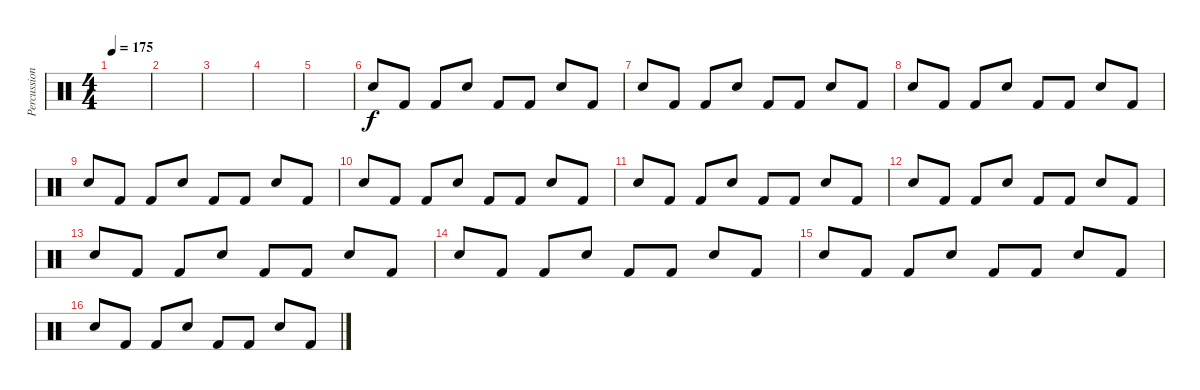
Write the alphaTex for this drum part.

\track ("Percussion" "Percussion") {instrument percussion}
\staff {score}
\articulation defaults
\ts (4 4)
\tempo 175
\clef neutral
\ks c
|
|
|
|
|
"Electric Snare (hit)".8 "Kick (hit) 2".8 "Kick (hit) 2".8 "Electric Snare (hit)".8 "Kick (hit) 2".8 "Kick (hit) 2".8 "Electric Snare (hit)".8 "Kick (hit) 2".8 |
"Electric Snare (hit)".8 "Kick (hit) 2".8 "Kick (hit) 2".8 "Electric Snare (hit)".8 "Kick (hit) 2".8 "Kick (hit) 2".8 "Electric Snare (hit)".8 "Kick (hit) 2".8 |
"Electric Snare (hit)".8 "Kick (hit) 2".8 "Kick (hit) 2".8 "Electric Snare (hit)".8 "Kick (hit) 2".8 "Kick (hit) 2".8 "Electric Snare (hit)".8 "Kick (hit) 2".8 |
"Electric Snare (hit)".8 "Kick (hit) 2".8 "Kick (hit) 2".8 "Electric Snare (hit)".8 "Kick (hit) 2".8 "Kick (hit) 2".8 "Electric Snare (hit)".8 "Kick (hit) 2".8 |
"Electric Snare (hit)".8 "Kick (hit) 2".8 "Kick (hit) 2".8 "Electric Snare (hit)".8 "Kick (hit) 2".8 "Kick (hit) 2".8 "Electric Snare (hit)".8 "Kick (hit) 2".8 |
"Electric Snare (hit)".8 "Kick (hit) 2".8 "Kick (hit) 2".8 "Electric Snare (hit)".8 "Kick (hit) 2".8 "Kick (hit) 2".8 "Electric Snare (hit)".8 "Kick (hit) 2".8 |
"Electric Snare (hit)".8 "Kick (hit) 2".8 "Kick (hit) 2".8 "Electric Snare (hit)".8 "Kick (hit) 2".8 "Kick (hit) 2".8 "Electric Snare (hit)".8 "Kick (hit) 2".8 |
"Electric Snare (hit)".8 "Kick (hit) 2".8 "Kick (hit) 2".8 "Electric Snare (hit)".8 "Kick (hit) 2".8 "Kick (hit) 2".8 "Electric Snare (hit)".8 "Kick (hit) 2".8 |
"Electric Snare (hit)".8 "Kick (hit) 2".8 "Kick (hit) 2".8 "Electric Snare (hit)".8 "Kick (hit) 2".8 "Kick (hit) 2".8 "Electric Snare (hit)".8 "Kick (hit) 2".8 |
"Electric Snare (hit)".8 "Kick (hit) 2".8 "Kick (hit) 2".8 "Electric Snare (hit)".8 "Kick (hit) 2".8 "Kick (hit) 2".8 "Electric Snare (hit)".8 "Kick (hit) 2".8 |
"Electric Snare (hit)".8 "Kick (hit) 2".8 "Kick (hit) 2".8 "Electric Snare (hit)".8 "Kick (hit) 2".8 "Kick (hit) 2".8 "Electric Snare (hit)".8 "Kick (hit) 2".8
